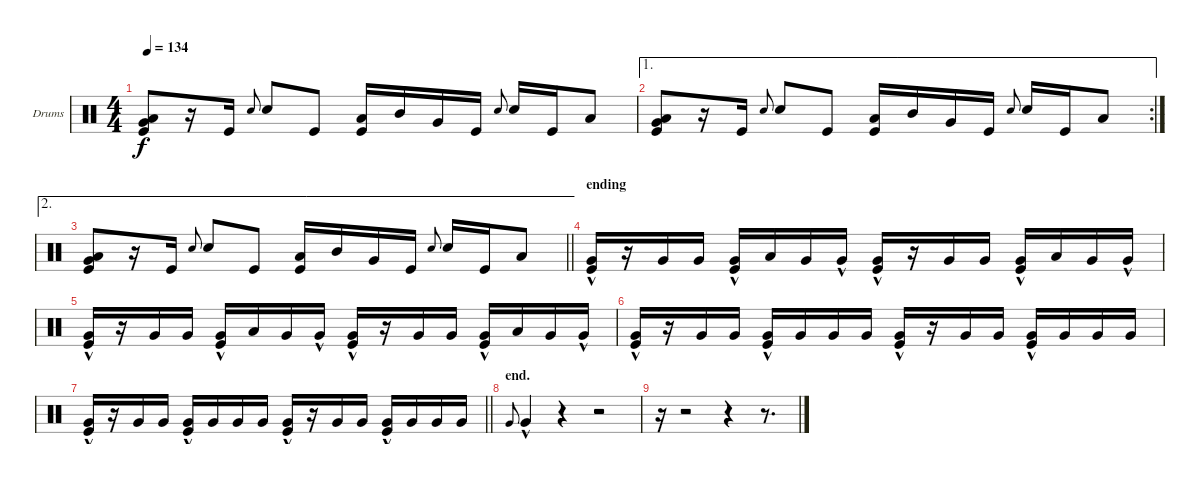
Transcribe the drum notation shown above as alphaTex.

\bracketExtendMode groupsimilarinstruments
\firstSystemTrackNameOrientation horizontal
\otherSystemsTrackNameOrientation horizontal
\track ("Drumkit" "Drums") {instrument percussion}
\staff {score}
\articulation defaults
\ts (4 4)
\tempo 134
\clef neutral
\ks c
("Low Tom (hit)" "Very Low Tom (hit)" "Kick (hit)").8{dy f} r.16 "Kick (hit)".16 "Snare (hit) 2".8{gr onbeat} "Snare (hit) 2".8 "Kick (hit)".8 ("Low Tom (hit)" "Kick (hit)").16 "Mid Tom (hit)".16 "Very Low Tom (hit)".16 "Kick (hit)".16 "Snare (hit) 2".8{gr onbeat} "Snare (hit) 2".16 "Kick (hit)".16 "Low Tom (hit)".8 |
\ae 1
\rc 2
("Low Tom (hit)" "Very Low Tom (hit)" "Kick (hit)").8 r.16 "Kick (hit)".16 "Snare (hit) 2".8{gr onbeat} "Snare (hit) 2".8 "Kick (hit)".8 ("Low Tom (hit)" "Kick (hit)").16 "Mid Tom (hit)".16 "Very Low Tom (hit)".16 "Kick (hit)".16 "Snare (hit) 2".8{gr onbeat} "Snare (hit) 2".16 "Kick (hit)".16 "Low Tom (hit)".8 |
\ae 2
\barLineRight lightlight
("Low Tom (hit)" "Very Low Tom (hit)" "Kick (hit)").8 r.16 "Kick (hit)".16 "Snare (hit) 2".8{gr onbeat} "Snare (hit) 2".8 "Kick (hit)".8 ("Low Tom (hit)" "Kick (hit)").16 "Mid Tom (hit)".16 "Very Low Tom (hit)".16 "Kick (hit)".16 "Snare (hit) 2".8{gr onbeat} "Snare (hit) 2".16 "Kick (hit)".16 "Low Tom (hit)".8 |
\section ("" "ending")
("Very Low Tom (hit)"{hac} "Kick (hit)").16 r.16 "Very Low Tom (hit)".16 "Very Low Tom (hit)".16 ("Very Low Tom (hit)"{hac} "Kick (hit)").16 "Low Tom (hit)".16 "Very Low Tom (hit)".16 "Very Low Tom (hit)"{hac}.16 ("Very Low Tom (hit)"{hac} "Kick (hit)").16 r.16 "Very Low Tom (hit)".16 "Very Low Tom (hit)".16 ("Very Low Tom (hit)"{hac} "Kick (hit)").16 "Low Tom (hit)".16 "Very Low Tom (hit)".16 "Very Low Tom (hit)"{hac}.16 |
("Very Low Tom (hit)"{hac} "Kick (hit)").16 r.16 "Very Low Tom (hit)".16 "Very Low Tom (hit)".16 ("Very Low Tom (hit)"{hac} "Kick (hit)").16 "Low Tom (hit)".16 "Very Low Tom (hit)".16 "Very Low Tom (hit)"{hac}.16 ("Very Low Tom (hit)"{hac} "Kick (hit)").16 r.16 "Very Low Tom (hit)".16 "Very Low Tom (hit)".16 ("Very Low Tom (hit)"{hac} "Kick (hit)").16 "Low Tom (hit)".16 "Very Low Tom (hit)".16 "Very Low Tom (hit)"{hac}.16 |
("Very Low Tom (hit)"{hac} "Kick (hit)").16 r.16 "Very Low Tom (hit)".16 "Very Low Tom (hit)".16 ("Very Low Tom (hit)"{hac} "Kick (hit)").16 "Very Low Tom (hit)".16 "Very Low Tom (hit)".16 "Very Low Tom (hit)".16 ("Very Low Tom (hit)"{hac} "Kick (hit)").16 r.16 "Very Low Tom (hit)".16 "Very Low Tom (hit)".16 ("Very Low Tom (hit)"{hac} "Kick (hit)").16 "Very Low Tom (hit)".16 "Very Low Tom (hit)".16 "Very Low Tom (hit)".16 |
\barLineRight lightlight
("Very Low Tom (hit)"{hac} "Kick (hit)").16 r.16 "Very Low Tom (hit)".16 "Very Low Tom (hit)".16 ("Very Low Tom (hit)"{hac} "Kick (hit)").16 "Very Low Tom (hit)".16 "Very Low Tom (hit)".16 "Very Low Tom (hit)".16 ("Very Low Tom (hit)"{hac} "Kick (hit)").16 r.16 "Very Low Tom (hit)".16 "Very Low Tom (hit)".16 ("Very Low Tom (hit)"{hac} "Kick (hit)").16 "Very Low Tom (hit)".16 "Very Low Tom (hit)".16 "Very Low Tom (hit)".16 |
\section ("" "end.")
"Very Low Tom (hit)".8{gr onbeat} "Very Low Tom (hit)"{hac}.4 r.4 r.2 |
r.16 r.2 r.4 r.8{d}
